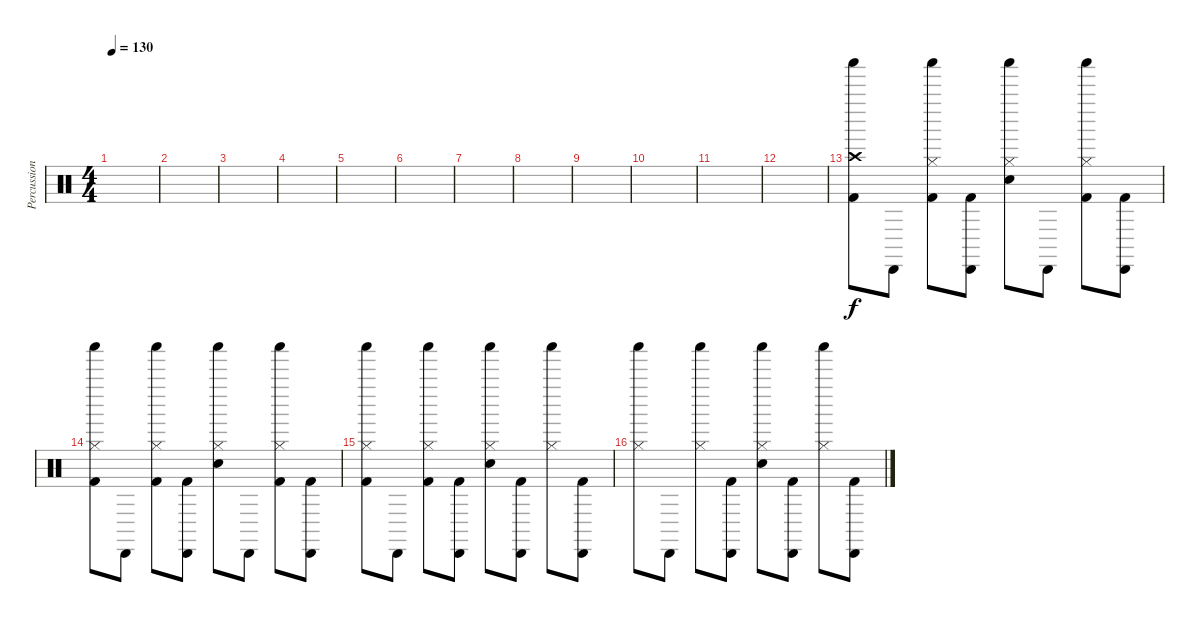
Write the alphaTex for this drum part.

\track ("Percussion" "Percussion") {instrument percussion}
\staff {score}
\articulation defaults
\ts (4 4)
\tempo 130
\clef neutral
\ks c
|
|
|
|
|
|
|
|
|
|
|
|
("Shaker (hit)" "Crash high (hit)" "Kick (hit) 2").8 "Cabasa (hit)".8 ("Shaker (hit)" "Hi-Hat (closed)" "Kick (hit) 2").8 ("Cabasa (hit)" "Kick (hit) 2").8 ("Shaker (hit)" "Hi-Hat (closed)" "Snare (hit) 2").8 "Cabasa (hit)".8 ("Shaker (hit)" "Hi-Hat (closed)" "Kick (hit) 2").8 ("Cabasa (hit)" "Kick (hit) 2").8 |
("Shaker (hit)" "Hi-Hat (closed)" "Kick (hit) 2").8 "Cabasa (hit)".8 ("Shaker (hit)" "Hi-Hat (closed)" "Kick (hit) 2").8 ("Cabasa (hit)" "Kick (hit) 2").8 ("Shaker (hit)" "Hi-Hat (closed)" "Snare (hit) 2").8 "Cabasa (hit)".8 ("Shaker (hit)" "Hi-Hat (closed)" "Kick (hit) 2").8 ("Cabasa (hit)" "Kick (hit) 2").8 |
("Shaker (hit)" "Hi-Hat (closed)" "Kick (hit) 2").8 "Cabasa (hit)".8 ("Shaker (hit)" "Hi-Hat (closed)" "Kick (hit) 2").8 ("Cabasa (hit)" "Kick (hit) 2").8 ("Shaker (hit)" "Hi-Hat (closed)" "Snare (hit) 2").8 ("Cabasa (hit)" "Kick (hit) 2").8 ("Shaker (hit)" "Hi-Hat (closed)").8 ("Cabasa (hit)" "Kick (hit) 2").8 |
("Shaker (hit)" "Hi-Hat (closed)").8 "Cabasa (hit)".8 ("Shaker (hit)" "Hi-Hat (closed)").8 ("Cabasa (hit)" "Kick (hit) 2").8 ("Shaker (hit)" "Hi-Hat (closed)" "Snare (hit) 2").8 ("Cabasa (hit)" "Kick (hit) 2").8 ("Shaker (hit)" "Hi-Hat (closed)").8 ("Cabasa (hit)" "Kick (hit) 2").8
